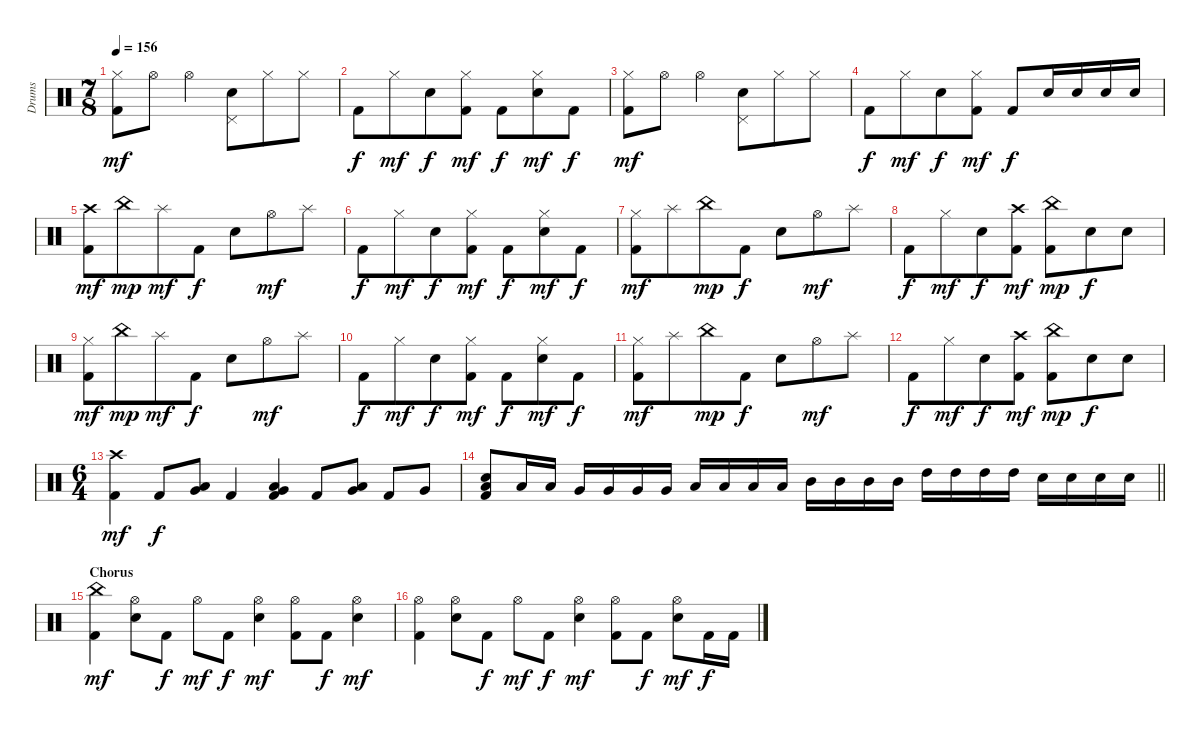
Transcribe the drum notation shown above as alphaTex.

\track ("Drums" "Drums") {instrument percussion}
\staff {score}
\articulation defaults
\ts (7 8)
\tempo 156
\clef neutral
\ks c
("Hi-Hat (closed)" "Kick (hit) 2").8{dy mf} "Hi-Hat (open)".8 "Hi-Hat (open)".4 ("Pedal Hi-Hat (hit)" "Electric Snare (hit)").8 "Hi-Hat (closed)".8 "Hi-Hat (closed)".8 |
"Kick (hit) 2".8{dy f} "Hi-Hat (closed)".8{dy mf} "Electric Snare (hit)".8{dy f} ("Hi-Hat (closed)" "Kick (hit) 2").8{dy mf} "Kick (hit) 2".8{dy f} ("Hi-Hat (closed)" "Electric Snare (hit)").8{dy mf} "Kick (hit) 2".8{dy f} |
("Hi-Hat (closed)" "Kick (hit) 2").8{dy mf} "Hi-Hat (open)".8 "Hi-Hat (open)".4 ("Pedal Hi-Hat (hit)" "Electric Snare (hit)").8 "Hi-Hat (closed)".8 "Hi-Hat (closed)".8 |
"Kick (hit) 2".8{dy f} "Hi-Hat (closed)".8{dy mf} "Electric Snare (hit)".8{dy f} ("Hi-Hat (closed)" "Kick (hit) 2").8{dy mf} "Kick (hit) 2".8{dy f} "Electric Snare (hit)".16 "Electric Snare (hit)".16 "Electric Snare (hit)".16 "Electric Snare (hit)".16 |
("Crash high (hit)" "Kick (hit) 2").8{dy mf} "China (hit)".8{dy mp} "Splash (hit)".8{dy mf} "Kick (hit) 2".8{dy f} "Electric Snare (hit)".8 "Hi-Hat (open)".8{dy mf} "Splash (hit)".8 |
"Kick (hit) 2".8{dy f} "Hi-Hat (closed)".8{dy mf} "Electric Snare (hit)".8{dy f} ("Hi-Hat (closed)" "Kick (hit) 2").8{dy mf} "Kick (hit) 2".8{dy f} ("Hi-Hat (closed)" "Electric Snare (hit)").8{dy mf} "Kick (hit) 2".8{dy f} |
("Hi-Hat (closed)" "Kick (hit) 2").8{dy mf} "Splash (hit)".8 "China (hit)".8{dy mp} "Kick (hit) 2".8{dy f} "Electric Snare (hit)".8 "Hi-Hat (open)".8{dy mf} "Splash (hit)".8 |
"Kick (hit) 2".8{dy f} "Hi-Hat (closed)".8{dy mf} "Electric Snare (hit)".8{dy f} ("Crash high (hit)" "Kick (hit) 2").8{dy mf} ("China (hit)" "Kick (hit) 2").8{dy mp} "Electric Snare (hit)".8{dy f} "Electric Snare (hit)".8 |
("Hi-Hat (closed)" "Kick (hit) 2").8{dy mf} "China (hit)".8{dy mp} "Splash (hit)".8{dy mf} "Kick (hit) 2".8{dy f} "Electric Snare (hit)".8 "Hi-Hat (open)".8{dy mf} "Splash (hit)".8 |
"Kick (hit) 2".8{dy f} "Hi-Hat (closed)".8{dy mf} "Electric Snare (hit)".8{dy f} ("Hi-Hat (closed)" "Kick (hit) 2").8{dy mf} "Kick (hit) 2".8{dy f} ("Hi-Hat (closed)" "Electric Snare (hit)").8{dy mf} "Kick (hit) 2".8{dy f} |
("Hi-Hat (closed)" "Kick (hit) 2").8{dy mf} "Splash (hit)".8 "China (hit)".8{dy mp} "Kick (hit) 2".8{dy f} "Electric Snare (hit)".8 "Hi-Hat (open)".8{dy mf} "Splash (hit)".8 |
"Kick (hit) 2".8{dy f} "Hi-Hat (closed)".8{dy mf} "Electric Snare (hit)".8{dy f} ("Crash high (hit)" "Kick (hit) 2").8{dy mf} ("China (hit)" "Kick (hit) 2").8{dy mp} "Electric Snare (hit)".8{dy f} "Electric Snare (hit)".8 |
\ts (6 4)
("Crash high (hit)" "Kick (hit) 2").4{dy mf} "Kick (hit) 2".8{dy f} ("Low Tom (hit)" "Very Low Tom (hit)").8 "Kick (hit) 2".4 ("Low Tom (hit)" "Very Low Tom (hit)" "Kick (hit) 2").4 "Kick (hit) 2".8 ("Low Tom (hit)" "Very Low Tom (hit)").8 "Kick (hit) 2".8 "Very Low Tom (hit)".8 |
\barLineRight lightlight
("Low Floor Tom (hit)" "Electric Snare (hit)" "Kick (hit) 2").8 "Low Floor Tom (hit)".16 "Low Floor Tom (hit)".16 "Very Low Tom (hit)".16 "Very Low Tom (hit)".16 "Very Low Tom (hit)".16 "Very Low Tom (hit)".16 "Low Tom (hit)".16 "Low Tom (hit)".16 "Low Tom (hit)".16 "Low Tom (hit)".16 "Mid Tom (hit)".16 "Mid Tom (hit)".16 "Mid Tom (hit)".16 "Mid Tom (hit)".16 "High Tom (hit)".16 "High Tom (hit)".16 "High Tom (hit)".16 "High Tom (hit)".16 "Electric Snare (hit)".16 "Electric Snare (hit)".16 "Electric Snare (hit)".16 "Electric Snare (hit)".16 |
\section ("" "Chorus")
("China (hit)" "Kick (hit) 2").4{dy mf} ("Hi-Hat (open)" "Electric Snare (hit)").8 "Kick (hit) 2".8{dy f} "Hi-Hat (open)".8{dy mf} "Kick (hit) 2".8{dy f} ("Hi-Hat (open)" "Electric Snare (hit)").4{dy mf} ("Hi-Hat (open)" "Kick (hit) 2").8 "Kick (hit) 2".8{dy f} ("Hi-Hat (open)" "Electric Snare (hit)").4{dy mf} |
("Hi-Hat (open)" "Kick (hit) 2").4 ("Hi-Hat (open)" "Electric Snare (hit)").8 "Kick (hit) 2".8{dy f} "Hi-Hat (open)".8{dy mf} "Kick (hit) 2".8{dy f} ("Hi-Hat (open)" "Electric Snare (hit)").4{dy mf} ("Hi-Hat (open)" "Kick (hit) 2").8 "Kick (hit) 2".8{dy f} ("Hi-Hat (open)" "Electric Snare (hit)").8{dy mf} "Kick (hit) 2".16{dy f} "Kick (hit) 2".16
